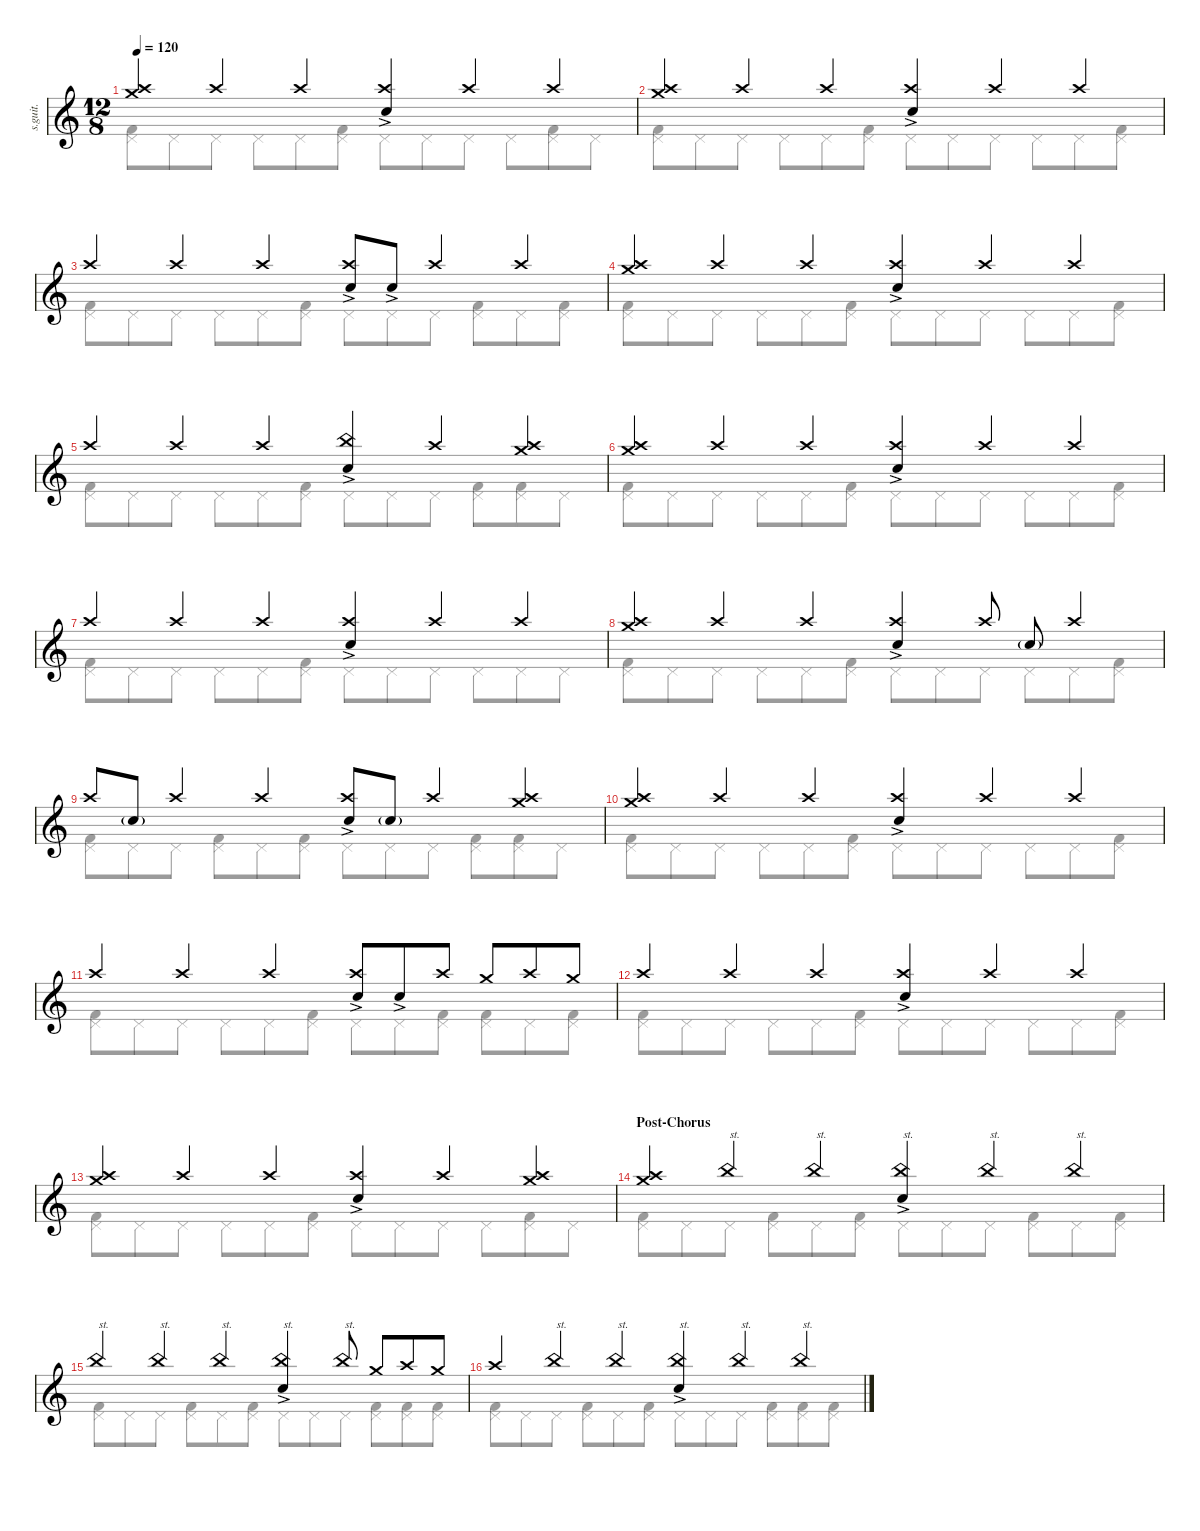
\defaultSystemsLayout 4
\hideDynamics
\bracketExtendMode nobrackets
\track ("Percussion" "s.guit.") {instrument percussion}
\staff {score}
\articulation defaults
\voice
\ts (12 8)
\tempo 120
\clef g2
\ks c
("Crash medium (hit)" "Crash high (hit)").4{lyrics (0 "") lyrics (1 "") lyrics (2 "") lyrics (3 "") lyrics (4 "") dy f} "Crash high (hit)".4{lyrics (0 "") lyrics (1 "") lyrics (2 "") lyrics (3 "") lyrics (4 "")} "Crash high (hit)".4{lyrics (0 "") lyrics (1 "") lyrics (2 "") lyrics (3 "") lyrics (4 "")} ("Crash high (hit)" "Snare (hit) 2"{ac}).4{lyrics (0 "") lyrics (1 "") lyrics (2 "") lyrics (3 "") lyrics (4 "")} "Crash high (hit)".4{lyrics (0 "") lyrics (1 "") lyrics (2 "") lyrics (3 "") lyrics (4 "")} "Crash high (hit)".4{lyrics (0 "") lyrics (1 "") lyrics (2 "") lyrics (3 "") lyrics (4 "")} |
("Crash medium (hit)" "Crash high (hit)").4{lyrics (0 "") lyrics (1 "") lyrics (2 "") lyrics (3 "") lyrics (4 "")} "Crash high (hit)".4{lyrics (0 "") lyrics (1 "") lyrics (2 "") lyrics (3 "") lyrics (4 "")} "Crash high (hit)".4{lyrics (0 "") lyrics (1 "") lyrics (2 "") lyrics (3 "") lyrics (4 "")} ("Crash high (hit)" "Snare (hit) 2"{ac}).4{lyrics (0 "") lyrics (1 "") lyrics (2 "") lyrics (3 "") lyrics (4 "")} "Crash high (hit)".4{lyrics (0 "") lyrics (1 "") lyrics (2 "") lyrics (3 "") lyrics (4 "")} "Crash high (hit)".4{lyrics (0 "") lyrics (1 "") lyrics (2 "") lyrics (3 "") lyrics (4 "")} |
"Crash high (hit)".4{lyrics (0 "") lyrics (1 "") lyrics (2 "") lyrics (3 "") lyrics (4 "")} "Crash high (hit)".4{lyrics (0 "") lyrics (1 "") lyrics (2 "") lyrics (3 "") lyrics (4 "")} "Crash high (hit)".4{lyrics (0 "") lyrics (1 "") lyrics (2 "") lyrics (3 "") lyrics (4 "")} ("Crash high (hit)" "Snare (hit) 2"{ac}).8{lyrics (0 "") lyrics (1 "") lyrics (2 "") lyrics (3 "") lyrics (4 "")} "Snare (hit) 2"{ac}.8{lyrics (0 "") lyrics (1 "") lyrics (2 "") lyrics (3 "") lyrics (4 "") dy mf} "Crash high (hit)".4{lyrics (0 "") lyrics (1 "") lyrics (2 "") lyrics (3 "") lyrics (4 "") dy f} "Crash high (hit)".4{lyrics (0 "") lyrics (1 "") lyrics (2 "") lyrics (3 "") lyrics (4 "")} |
("Crash medium (hit)" "Crash high (hit)").4{lyrics (0 "") lyrics (1 "") lyrics (2 "") lyrics (3 "") lyrics (4 "")} "Crash high (hit)".4{lyrics (0 "") lyrics (1 "") lyrics (2 "") lyrics (3 "") lyrics (4 "")} "Crash high (hit)".4{lyrics (0 "") lyrics (1 "") lyrics (2 "") lyrics (3 "") lyrics (4 "")} ("Crash high (hit)" "Snare (hit) 2"{ac}).4{lyrics (0 "") lyrics (1 "") lyrics (2 "") lyrics (3 "") lyrics (4 "")} "Crash high (hit)".4{lyrics (0 "") lyrics (1 "") lyrics (2 "") lyrics (3 "") lyrics (4 "")} "Crash high (hit)".4{lyrics (0 "") lyrics (1 "") lyrics (2 "") lyrics (3 "") lyrics (4 "")} |
"Crash high (hit)".4{lyrics (0 "") lyrics (1 "") lyrics (2 "") lyrics (3 "") lyrics (4 "")} "Crash high (hit)".4{lyrics (0 "") lyrics (1 "") lyrics (2 "") lyrics (3 "") lyrics (4 "")} "Crash high (hit)".4{lyrics (0 "") lyrics (1 "") lyrics (2 "") lyrics (3 "") lyrics (4 "")} ("Snare (hit) 2"{ac} "China (hit)").4{lyrics (0 "") lyrics (1 "") lyrics (2 "") lyrics (3 "") lyrics (4 "")} "Crash high (hit)".4{lyrics (0 "") lyrics (1 "") lyrics (2 "") lyrics (3 "") lyrics (4 "")} ("Crash high (hit)" "Crash medium (hit)").4{lyrics (0 "") lyrics (1 "") lyrics (2 "") lyrics (3 "") lyrics (4 "")} |
("Crash medium (hit)" "Crash high (hit)").4{lyrics (0 "") lyrics (1 "") lyrics (2 "") lyrics (3 "") lyrics (4 "")} "Crash high (hit)".4{lyrics (0 "") lyrics (1 "") lyrics (2 "") lyrics (3 "") lyrics (4 "")} "Crash high (hit)".4{lyrics (0 "") lyrics (1 "") lyrics (2 "") lyrics (3 "") lyrics (4 "")} ("Crash high (hit)" "Snare (hit) 2"{ac}).4{lyrics (0 "") lyrics (1 "") lyrics (2 "") lyrics (3 "") lyrics (4 "")} "Crash high (hit)".4{lyrics (0 "") lyrics (1 "") lyrics (2 "") lyrics (3 "") lyrics (4 "")} "Crash high (hit)".4{lyrics (0 "") lyrics (1 "") lyrics (2 "") lyrics (3 "") lyrics (4 "")} |
"Crash high (hit)".4{lyrics (0 "") lyrics (1 "") lyrics (2 "") lyrics (3 "") lyrics (4 "")} "Crash high (hit)".4{lyrics (0 "") lyrics (1 "") lyrics (2 "") lyrics (3 "") lyrics (4 "")} "Crash high (hit)".4{lyrics (0 "") lyrics (1 "") lyrics (2 "") lyrics (3 "") lyrics (4 "")} ("Crash high (hit)" "Snare (hit) 2"{ac}).4{lyrics (0 "") lyrics (1 "") lyrics (2 "") lyrics (3 "") lyrics (4 "")} "Crash high (hit)".4{lyrics (0 "") lyrics (1 "") lyrics (2 "") lyrics (3 "") lyrics (4 "")} "Crash high (hit)".4{lyrics (0 "") lyrics (1 "") lyrics (2 "") lyrics (3 "") lyrics (4 "")} |
("Crash medium (hit)" "Crash high (hit)").4{lyrics (0 "") lyrics (1 "") lyrics (2 "") lyrics (3 "") lyrics (4 "")} "Crash high (hit)".4{lyrics (0 "") lyrics (1 "") lyrics (2 "") lyrics (3 "") lyrics (4 "")} "Crash high (hit)".4{lyrics (0 "") lyrics (1 "") lyrics (2 "") lyrics (3 "") lyrics (4 "")} ("Crash high (hit)" "Snare (hit) 2"{ac}).4{lyrics (0 "") lyrics (1 "") lyrics (2 "") lyrics (3 "") lyrics (4 "")} "Crash high (hit)".8{lyrics (0 "") lyrics (1 "") lyrics (2 "") lyrics (3 "") lyrics (4 "")} "Snare (hit) 2"{g}.8{lyrics (0 "") lyrics (1 "") lyrics (2 "") lyrics (3 "") lyrics (4 "") dy ff} "Crash high (hit)".4{lyrics (0 "") lyrics (1 "") lyrics (2 "") lyrics (3 "") lyrics (4 "") dy f} |
"Crash high (hit)".8{lyrics (0 "") lyrics (1 "") lyrics (2 "") lyrics (3 "") lyrics (4 "")} "Snare (hit) 2"{g}.8{lyrics (0 "") lyrics (1 "") lyrics (2 "") lyrics (3 "") lyrics (4 "") dy ff} "Crash high (hit)".4{lyrics (0 "") lyrics (1 "") lyrics (2 "") lyrics (3 "") lyrics (4 "") dy f} "Crash high (hit)".4{lyrics (0 "") lyrics (1 "") lyrics (2 "") lyrics (3 "") lyrics (4 "")} ("Crash high (hit)" "Snare (hit) 2"{ac}).8{lyrics (0 "") lyrics (1 "") lyrics (2 "") lyrics (3 "") lyrics (4 "")} "Snare (hit) 2"{g}.8{lyrics (0 "") lyrics (1 "") lyrics (2 "") lyrics (3 "") lyrics (4 "") dy ff} "Crash high (hit)".4{lyrics (0 "") lyrics (1 "") lyrics (2 "") lyrics (3 "") lyrics (4 "") dy f} ("Crash high (hit)" "Crash medium (hit)").4{lyrics (0 "") lyrics (1 "") lyrics (2 "") lyrics (3 "") lyrics (4 "")} |
("Crash medium (hit)" "Crash high (hit)").4{lyrics (0 "") lyrics (1 "") lyrics (2 "") lyrics (3 "") lyrics (4 "")} "Crash high (hit)".4{lyrics (0 "") lyrics (1 "") lyrics (2 "") lyrics (3 "") lyrics (4 "")} "Crash high (hit)".4{lyrics (0 "") lyrics (1 "") lyrics (2 "") lyrics (3 "") lyrics (4 "")} ("Crash high (hit)" "Snare (hit) 2"{ac}).4{lyrics (0 "") lyrics (1 "") lyrics (2 "") lyrics (3 "") lyrics (4 "")} "Crash high (hit)".4{lyrics (0 "") lyrics (1 "") lyrics (2 "") lyrics (3 "") lyrics (4 "")} "Crash high (hit)".4{lyrics (0 "") lyrics (1 "") lyrics (2 "") lyrics (3 "") lyrics (4 "")} |
"Crash high (hit)".4{lyrics (0 "") lyrics (1 "") lyrics (2 "") lyrics (3 "") lyrics (4 "")} "Crash high (hit)".4{lyrics (0 "") lyrics (1 "") lyrics (2 "") lyrics (3 "") lyrics (4 "")} "Crash high (hit)".4{lyrics (0 "") lyrics (1 "") lyrics (2 "") lyrics (3 "") lyrics (4 "")} ("Crash high (hit)" "Snare (hit) 2"{ac}).8{lyrics (0 "") lyrics (1 "") lyrics (2 "") lyrics (3 "") lyrics (4 "")} "Snare (hit) 2"{ac}.8{lyrics (0 "") lyrics (1 "") lyrics (2 "") lyrics (3 "") lyrics (4 "") dy mf} "Crash high (hit)".8{lyrics (0 "") lyrics (1 "") lyrics (2 "") lyrics (3 "") lyrics (4 "") dy f} "Crash medium (hit)".8{lyrics (0 "") lyrics (1 "") lyrics (2 "") lyrics (3 "") lyrics (4 "")} "Crash high (hit)".8{lyrics (0 "") lyrics (1 "") lyrics (2 "") lyrics (3 "") lyrics (4 "")} "Crash medium (hit)".8{lyrics (0 "") lyrics (1 "") lyrics (2 "") lyrics (3 "") lyrics (4 "")} |
"Crash high (hit)".4{lyrics (0 "") lyrics (1 "") lyrics (2 "") lyrics (3 "") lyrics (4 "")} "Crash high (hit)".4{lyrics (0 "") lyrics (1 "") lyrics (2 "") lyrics (3 "") lyrics (4 "")} "Crash high (hit)".4{lyrics (0 "") lyrics (1 "") lyrics (2 "") lyrics (3 "") lyrics (4 "")} ("Crash high (hit)" "Snare (hit) 2"{ac}).4{lyrics (0 "") lyrics (1 "") lyrics (2 "") lyrics (3 "") lyrics (4 "")} "Crash high (hit)".4{lyrics (0 "") lyrics (1 "") lyrics (2 "") lyrics (3 "") lyrics (4 "")} "Crash high (hit)".4{lyrics (0 "") lyrics (1 "") lyrics (2 "") lyrics (3 "") lyrics (4 "")} |
("Crash medium (hit)" "Crash high (hit)").4{lyrics (0 "") lyrics (1 "") lyrics (2 "") lyrics (3 "") lyrics (4 "")} "Crash high (hit)".4{lyrics (0 "") lyrics (1 "") lyrics (2 "") lyrics (3 "") lyrics (4 "")} "Crash high (hit)".4{lyrics (0 "") lyrics (1 "") lyrics (2 "") lyrics (3 "") lyrics (4 "")} ("Crash high (hit)" "Snare (hit) 2"{ac}).4{lyrics (0 "") lyrics (1 "") lyrics (2 "") lyrics (3 "") lyrics (4 "")} "Crash high (hit)".4{lyrics (0 "") lyrics (1 "") lyrics (2 "") lyrics (3 "") lyrics (4 "")} ("Crash high (hit)" "Crash medium (hit)").4{lyrics (0 "") lyrics (1 "") lyrics (2 "") lyrics (3 "") lyrics (4 "")} |
\section ("" "Post-Chorus")
("Crash high (hit)" "Crash medium (hit)").4{lyrics (0 "") lyrics (1 "") lyrics (2 "") lyrics (3 "") lyrics (4 "")} "China (hit)".4{txt "st." lyrics (0 "") lyrics (1 "") lyrics (2 "") lyrics (3 "") lyrics (4 "")} "China (hit)".4{txt "st." lyrics (0 "") lyrics (1 "") lyrics (2 "") lyrics (3 "") lyrics (4 "")} ("Snare (hit) 2"{ac} "China (hit)").4{txt "st." lyrics (0 "") lyrics (1 "") lyrics (2 "") lyrics (3 "") lyrics (4 "")} "China (hit)".4{txt "st." lyrics (0 "") lyrics (1 "") lyrics (2 "") lyrics (3 "") lyrics (4 "")} "China (hit)".4{txt "st." lyrics (0 "") lyrics (1 "") lyrics (2 "") lyrics (3 "") lyrics (4 "")} |
"China (hit)".4{txt "st." lyrics (0 "") lyrics (1 "") lyrics (2 "") lyrics (3 "") lyrics (4 "")} "China (hit)".4{txt "st." lyrics (0 "") lyrics (1 "") lyrics (2 "") lyrics (3 "") lyrics (4 "")} "China (hit)".4{txt "st." lyrics (0 "") lyrics (1 "") lyrics (2 "") lyrics (3 "") lyrics (4 "")} ("Snare (hit) 2"{ac} "China (hit)").4{txt "st." lyrics (0 "") lyrics (1 "") lyrics (2 "") lyrics (3 "") lyrics (4 "")} "China (hit)".8{txt "st." lyrics (0 "") lyrics (1 "") lyrics (2 "") lyrics (3 "") lyrics (4 "")} "Crash medium (hit)".8{lyrics (0 "") lyrics (1 "") lyrics (2 "") lyrics (3 "") lyrics (4 "")} "Crash high (hit)".8{lyrics (0 "") lyrics (1 "") lyrics (2 "") lyrics (3 "") lyrics (4 "")} "Crash medium (hit)".8{lyrics (0 "") lyrics (1 "") lyrics (2 "") lyrics (3 "") lyrics (4 "")} |
"Crash high (hit)".4{lyrics (0 "") lyrics (1 "") lyrics (2 "") lyrics (3 "") lyrics (4 "")} "China (hit)".4{txt "st." lyrics (0 "") lyrics (1 "") lyrics (2 "") lyrics (3 "") lyrics (4 "")} "China (hit)".4{txt "st." lyrics (0 "") lyrics (1 "") lyrics (2 "") lyrics (3 "") lyrics (4 "")} ("Snare (hit) 2"{ac} "China (hit)").4{txt "st." lyrics (0 "") lyrics (1 "") lyrics (2 "") lyrics (3 "") lyrics (4 "")} "China (hit)".4{txt "st." lyrics (0 "") lyrics (1 "") lyrics (2 "") lyrics (3 "") lyrics (4 "")} "China (hit)".4{txt "st." lyrics (0 "") lyrics (1 "") lyrics (2 "") lyrics (3 "") lyrics (4 "")}
\voice
\clef g2
\ottava regular
\simile none
\ks c
("Kick (hit) 2" "Pedal Hi-Hat (hit)").8{lyrics (0 "") lyrics (1 "") lyrics (2 "") lyrics (3 "") lyrics (4 "") dy f} "Pedal Hi-Hat (hit)".8{lyrics (0 "") lyrics (1 "") lyrics (2 "") lyrics (3 "") lyrics (4 "")} "Pedal Hi-Hat (hit)".8{lyrics (0 "") lyrics (1 "") lyrics (2 "") lyrics (3 "") lyrics (4 "")} "Pedal Hi-Hat (hit)".8{lyrics (0 "") lyrics (1 "") lyrics (2 "") lyrics (3 "") lyrics (4 "")} "Pedal Hi-Hat (hit)".8{lyrics (0 "") lyrics (1 "") lyrics (2 "") lyrics (3 "") lyrics (4 "")} ("Pedal Hi-Hat (hit)" "Kick (hit) 2").8{lyrics (0 "") lyrics (1 "") lyrics (2 "") lyrics (3 "") lyrics (4 "")} "Pedal Hi-Hat (hit)".8{lyrics (0 "") lyrics (1 "") lyrics (2 "") lyrics (3 "") lyrics (4 "")} "Pedal Hi-Hat (hit)".8{lyrics (0 "") lyrics (1 "") lyrics (2 "") lyrics (3 "") lyrics (4 "")} "Pedal Hi-Hat (hit)".8{lyrics (0 "") lyrics (1 "") lyrics (2 "") lyrics (3 "") lyrics (4 "")} "Pedal Hi-Hat (hit)".8{lyrics (0 "") lyrics (1 "") lyrics (2 "") lyrics (3 "") lyrics (4 "")} ("Pedal Hi-Hat (hit)" "Kick (hit) 2").8{lyrics (0 "") lyrics (1 "") lyrics (2 "") lyrics (3 "") lyrics (4 "")} "Pedal Hi-Hat (hit)".8{lyrics (0 "") lyrics (1 "") lyrics (2 "") lyrics (3 "") lyrics (4 "")} |
("Kick (hit) 2" "Pedal Hi-Hat (hit)").8{lyrics (0 "") lyrics (1 "") lyrics (2 "") lyrics (3 "") lyrics (4 "")} "Pedal Hi-Hat (hit)".8{lyrics (0 "") lyrics (1 "") lyrics (2 "") lyrics (3 "") lyrics (4 "")} "Pedal Hi-Hat (hit)".8{lyrics (0 "") lyrics (1 "") lyrics (2 "") lyrics (3 "") lyrics (4 "")} "Pedal Hi-Hat (hit)".8{lyrics (0 "") lyrics (1 "") lyrics (2 "") lyrics (3 "") lyrics (4 "")} "Pedal Hi-Hat (hit)".8{lyrics (0 "") lyrics (1 "") lyrics (2 "") lyrics (3 "") lyrics (4 "")} ("Pedal Hi-Hat (hit)" "Kick (hit) 2").8{lyrics (0 "") lyrics (1 "") lyrics (2 "") lyrics (3 "") lyrics (4 "")} "Pedal Hi-Hat (hit)".8{lyrics (0 "") lyrics (1 "") lyrics (2 "") lyrics (3 "") lyrics (4 "")} "Pedal Hi-Hat (hit)".8{lyrics (0 "") lyrics (1 "") lyrics (2 "") lyrics (3 "") lyrics (4 "")} "Pedal Hi-Hat (hit)".8{lyrics (0 "") lyrics (1 "") lyrics (2 "") lyrics (3 "") lyrics (4 "")} "Pedal Hi-Hat (hit)".8{lyrics (0 "") lyrics (1 "") lyrics (2 "") lyrics (3 "") lyrics (4 "")} "Pedal Hi-Hat (hit)".8{lyrics (0 "") lyrics (1 "") lyrics (2 "") lyrics (3 "") lyrics (4 "")} ("Pedal Hi-Hat (hit)" "Kick (hit) 2").8{lyrics (0 "") lyrics (1 "") lyrics (2 "") lyrics (3 "") lyrics (4 "")} |
("Kick (hit) 2" "Pedal Hi-Hat (hit)").8{lyrics (0 "") lyrics (1 "") lyrics (2 "") lyrics (3 "") lyrics (4 "")} "Pedal Hi-Hat (hit)".8{lyrics (0 "") lyrics (1 "") lyrics (2 "") lyrics (3 "") lyrics (4 "")} "Pedal Hi-Hat (hit)".8{lyrics (0 "") lyrics (1 "") lyrics (2 "") lyrics (3 "") lyrics (4 "")} "Pedal Hi-Hat (hit)".8{lyrics (0 "") lyrics (1 "") lyrics (2 "") lyrics (3 "") lyrics (4 "")} "Pedal Hi-Hat (hit)".8{lyrics (0 "") lyrics (1 "") lyrics (2 "") lyrics (3 "") lyrics (4 "")} ("Pedal Hi-Hat (hit)" "Kick (hit) 2").8{lyrics (0 "") lyrics (1 "") lyrics (2 "") lyrics (3 "") lyrics (4 "")} "Pedal Hi-Hat (hit)".8{lyrics (0 "") lyrics (1 "") lyrics (2 "") lyrics (3 "") lyrics (4 "")} "Pedal Hi-Hat (hit)".8{lyrics (0 "") lyrics (1 "") lyrics (2 "") lyrics (3 "") lyrics (4 "")} "Pedal Hi-Hat (hit)".8{lyrics (0 "") lyrics (1 "") lyrics (2 "") lyrics (3 "") lyrics (4 "")} ("Pedal Hi-Hat (hit)" "Kick (hit) 2").8{lyrics (0 "") lyrics (1 "") lyrics (2 "") lyrics (3 "") lyrics (4 "")} "Pedal Hi-Hat (hit)".8{lyrics (0 "") lyrics (1 "") lyrics (2 "") lyrics (3 "") lyrics (4 "")} ("Pedal Hi-Hat (hit)" "Kick (hit) 2").8{lyrics (0 "") lyrics (1 "") lyrics (2 "") lyrics (3 "") lyrics (4 "")} |
("Kick (hit) 2" "Pedal Hi-Hat (hit)").8{lyrics (0 "") lyrics (1 "") lyrics (2 "") lyrics (3 "") lyrics (4 "")} "Pedal Hi-Hat (hit)".8{lyrics (0 "") lyrics (1 "") lyrics (2 "") lyrics (3 "") lyrics (4 "")} "Pedal Hi-Hat (hit)".8{lyrics (0 "") lyrics (1 "") lyrics (2 "") lyrics (3 "") lyrics (4 "")} "Pedal Hi-Hat (hit)".8{lyrics (0 "") lyrics (1 "") lyrics (2 "") lyrics (3 "") lyrics (4 "")} "Pedal Hi-Hat (hit)".8{lyrics (0 "") lyrics (1 "") lyrics (2 "") lyrics (3 "") lyrics (4 "")} ("Pedal Hi-Hat (hit)" "Kick (hit) 2").8{lyrics (0 "") lyrics (1 "") lyrics (2 "") lyrics (3 "") lyrics (4 "")} "Pedal Hi-Hat (hit)".8{lyrics (0 "") lyrics (1 "") lyrics (2 "") lyrics (3 "") lyrics (4 "")} "Pedal Hi-Hat (hit)".8{lyrics (0 "") lyrics (1 "") lyrics (2 "") lyrics (3 "") lyrics (4 "")} "Pedal Hi-Hat (hit)".8{lyrics (0 "") lyrics (1 "") lyrics (2 "") lyrics (3 "") lyrics (4 "")} "Pedal Hi-Hat (hit)".8{lyrics (0 "") lyrics (1 "") lyrics (2 "") lyrics (3 "") lyrics (4 "")} "Pedal Hi-Hat (hit)".8{lyrics (0 "") lyrics (1 "") lyrics (2 "") lyrics (3 "") lyrics (4 "")} ("Pedal Hi-Hat (hit)" "Kick (hit) 2").8{lyrics (0 "") lyrics (1 "") lyrics (2 "") lyrics (3 "") lyrics (4 "")} |
("Kick (hit) 2" "Pedal Hi-Hat (hit)").8{lyrics (0 "") lyrics (1 "") lyrics (2 "") lyrics (3 "") lyrics (4 "")} "Pedal Hi-Hat (hit)".8{lyrics (0 "") lyrics (1 "") lyrics (2 "") lyrics (3 "") lyrics (4 "")} "Pedal Hi-Hat (hit)".8{lyrics (0 "") lyrics (1 "") lyrics (2 "") lyrics (3 "") lyrics (4 "")} "Pedal Hi-Hat (hit)".8{lyrics (0 "") lyrics (1 "") lyrics (2 "") lyrics (3 "") lyrics (4 "")} "Pedal Hi-Hat (hit)".8{lyrics (0 "") lyrics (1 "") lyrics (2 "") lyrics (3 "") lyrics (4 "")} ("Pedal Hi-Hat (hit)" "Kick (hit) 2").8{lyrics (0 "") lyrics (1 "") lyrics (2 "") lyrics (3 "") lyrics (4 "")} "Pedal Hi-Hat (hit)".8{lyrics (0 "") lyrics (1 "") lyrics (2 "") lyrics (3 "") lyrics (4 "")} "Pedal Hi-Hat (hit)".8{lyrics (0 "") lyrics (1 "") lyrics (2 "") lyrics (3 "") lyrics (4 "")} "Pedal Hi-Hat (hit)".8{lyrics (0 "") lyrics (1 "") lyrics (2 "") lyrics (3 "") lyrics (4 "")} ("Pedal Hi-Hat (hit)" "Kick (hit) 2").8{lyrics (0 "") lyrics (1 "") lyrics (2 "") lyrics (3 "") lyrics (4 "")} ("Pedal Hi-Hat (hit)" "Kick (hit) 2").8{lyrics (0 "") lyrics (1 "") lyrics (2 "") lyrics (3 "") lyrics (4 "")} "Pedal Hi-Hat (hit)".8{lyrics (0 "") lyrics (1 "") lyrics (2 "") lyrics (3 "") lyrics (4 "")} |
("Kick (hit) 2" "Pedal Hi-Hat (hit)").8{lyrics (0 "") lyrics (1 "") lyrics (2 "") lyrics (3 "") lyrics (4 "")} "Pedal Hi-Hat (hit)".8{lyrics (0 "") lyrics (1 "") lyrics (2 "") lyrics (3 "") lyrics (4 "")} "Pedal Hi-Hat (hit)".8{lyrics (0 "") lyrics (1 "") lyrics (2 "") lyrics (3 "") lyrics (4 "")} "Pedal Hi-Hat (hit)".8{lyrics (0 "") lyrics (1 "") lyrics (2 "") lyrics (3 "") lyrics (4 "")} "Pedal Hi-Hat (hit)".8{lyrics (0 "") lyrics (1 "") lyrics (2 "") lyrics (3 "") lyrics (4 "")} ("Pedal Hi-Hat (hit)" "Kick (hit) 2").8{lyrics (0 "") lyrics (1 "") lyrics (2 "") lyrics (3 "") lyrics (4 "")} "Pedal Hi-Hat (hit)".8{lyrics (0 "") lyrics (1 "") lyrics (2 "") lyrics (3 "") lyrics (4 "")} "Pedal Hi-Hat (hit)".8{lyrics (0 "") lyrics (1 "") lyrics (2 "") lyrics (3 "") lyrics (4 "")} "Pedal Hi-Hat (hit)".8{lyrics (0 "") lyrics (1 "") lyrics (2 "") lyrics (3 "") lyrics (4 "")} "Pedal Hi-Hat (hit)".8{lyrics (0 "") lyrics (1 "") lyrics (2 "") lyrics (3 "") lyrics (4 "")} "Pedal Hi-Hat (hit)".8{lyrics (0 "") lyrics (1 "") lyrics (2 "") lyrics (3 "") lyrics (4 "")} ("Pedal Hi-Hat (hit)" "Kick (hit) 2").8{lyrics (0 "") lyrics (1 "") lyrics (2 "") lyrics (3 "") lyrics (4 "")} |
("Kick (hit) 2" "Pedal Hi-Hat (hit)").8{lyrics (0 "") lyrics (1 "") lyrics (2 "") lyrics (3 "") lyrics (4 "")} "Pedal Hi-Hat (hit)".8{lyrics (0 "") lyrics (1 "") lyrics (2 "") lyrics (3 "") lyrics (4 "")} "Pedal Hi-Hat (hit)".8{lyrics (0 "") lyrics (1 "") lyrics (2 "") lyrics (3 "") lyrics (4 "")} "Pedal Hi-Hat (hit)".8{lyrics (0 "") lyrics (1 "") lyrics (2 "") lyrics (3 "") lyrics (4 "")} "Pedal Hi-Hat (hit)".8{lyrics (0 "") lyrics (1 "") lyrics (2 "") lyrics (3 "") lyrics (4 "")} ("Pedal Hi-Hat (hit)" "Kick (hit) 2").8{lyrics (0 "") lyrics (1 "") lyrics (2 "") lyrics (3 "") lyrics (4 "")} "Pedal Hi-Hat (hit)".8{lyrics (0 "") lyrics (1 "") lyrics (2 "") lyrics (3 "") lyrics (4 "")} "Pedal Hi-Hat (hit)".8{lyrics (0 "") lyrics (1 "") lyrics (2 "") lyrics (3 "") lyrics (4 "")} "Pedal Hi-Hat (hit)".8{lyrics (0 "") lyrics (1 "") lyrics (2 "") lyrics (3 "") lyrics (4 "")} "Pedal Hi-Hat (hit)".8{lyrics (0 "") lyrics (1 "") lyrics (2 "") lyrics (3 "") lyrics (4 "")} "Pedal Hi-Hat (hit)".8{lyrics (0 "") lyrics (1 "") lyrics (2 "") lyrics (3 "") lyrics (4 "")} "Pedal Hi-Hat (hit)".8{lyrics (0 "") lyrics (1 "") lyrics (2 "") lyrics (3 "") lyrics (4 "")} |
("Kick (hit) 2" "Pedal Hi-Hat (hit)").8{lyrics (0 "") lyrics (1 "") lyrics (2 "") lyrics (3 "") lyrics (4 "")} "Pedal Hi-Hat (hit)".8{lyrics (0 "") lyrics (1 "") lyrics (2 "") lyrics (3 "") lyrics (4 "")} "Pedal Hi-Hat (hit)".8{lyrics (0 "") lyrics (1 "") lyrics (2 "") lyrics (3 "") lyrics (4 "")} "Pedal Hi-Hat (hit)".8{lyrics (0 "") lyrics (1 "") lyrics (2 "") lyrics (3 "") lyrics (4 "")} "Pedal Hi-Hat (hit)".8{lyrics (0 "") lyrics (1 "") lyrics (2 "") lyrics (3 "") lyrics (4 "")} ("Pedal Hi-Hat (hit)" "Kick (hit) 2").8{lyrics (0 "") lyrics (1 "") lyrics (2 "") lyrics (3 "") lyrics (4 "")} "Pedal Hi-Hat (hit)".8{lyrics (0 "") lyrics (1 "") lyrics (2 "") lyrics (3 "") lyrics (4 "")} "Pedal Hi-Hat (hit)".8{lyrics (0 "") lyrics (1 "") lyrics (2 "") lyrics (3 "") lyrics (4 "")} "Pedal Hi-Hat (hit)".8{lyrics (0 "") lyrics (1 "") lyrics (2 "") lyrics (3 "") lyrics (4 "")} "Pedal Hi-Hat (hit)".8{lyrics (0 "") lyrics (1 "") lyrics (2 "") lyrics (3 "") lyrics (4 "")} "Pedal Hi-Hat (hit)".8{lyrics (0 "") lyrics (1 "") lyrics (2 "") lyrics (3 "") lyrics (4 "")} ("Pedal Hi-Hat (hit)" "Kick (hit) 2").8{lyrics (0 "") lyrics (1 "") lyrics (2 "") lyrics (3 "") lyrics (4 "")} |
("Kick (hit) 2" "Pedal Hi-Hat (hit)").8{lyrics (0 "") lyrics (1 "") lyrics (2 "") lyrics (3 "") lyrics (4 "")} "Pedal Hi-Hat (hit)".8{lyrics (0 "") lyrics (1 "") lyrics (2 "") lyrics (3 "") lyrics (4 "")} "Pedal Hi-Hat (hit)".8{lyrics (0 "") lyrics (1 "") lyrics (2 "") lyrics (3 "") lyrics (4 "")} ("Pedal Hi-Hat (hit)" "Kick (hit) 2").8{lyrics (0 "") lyrics (1 "") lyrics (2 "") lyrics (3 "") lyrics (4 "")} "Pedal Hi-Hat (hit)".8{lyrics (0 "") lyrics (1 "") lyrics (2 "") lyrics (3 "") lyrics (4 "")} ("Pedal Hi-Hat (hit)" "Kick (hit) 2").8{lyrics (0 "") lyrics (1 "") lyrics (2 "") lyrics (3 "") lyrics (4 "")} "Pedal Hi-Hat (hit)".8{lyrics (0 "") lyrics (1 "") lyrics (2 "") lyrics (3 "") lyrics (4 "")} "Pedal Hi-Hat (hit)".8{lyrics (0 "") lyrics (1 "") lyrics (2 "") lyrics (3 "") lyrics (4 "")} "Pedal Hi-Hat (hit)".8{lyrics (0 "") lyrics (1 "") lyrics (2 "") lyrics (3 "") lyrics (4 "")} ("Pedal Hi-Hat (hit)" "Kick (hit) 2").8{lyrics (0 "") lyrics (1 "") lyrics (2 "") lyrics (3 "") lyrics (4 "")} ("Pedal Hi-Hat (hit)" "Kick (hit) 2").8{lyrics (0 "") lyrics (1 "") lyrics (2 "") lyrics (3 "") lyrics (4 "")} "Pedal Hi-Hat (hit)".8{lyrics (0 "") lyrics (1 "") lyrics (2 "") lyrics (3 "") lyrics (4 "")} |
("Kick (hit) 2" "Pedal Hi-Hat (hit)").8{lyrics (0 "") lyrics (1 "") lyrics (2 "") lyrics (3 "") lyrics (4 "")} "Pedal Hi-Hat (hit)".8{lyrics (0 "") lyrics (1 "") lyrics (2 "") lyrics (3 "") lyrics (4 "")} "Pedal Hi-Hat (hit)".8{lyrics (0 "") lyrics (1 "") lyrics (2 "") lyrics (3 "") lyrics (4 "")} "Pedal Hi-Hat (hit)".8{lyrics (0 "") lyrics (1 "") lyrics (2 "") lyrics (3 "") lyrics (4 "")} "Pedal Hi-Hat (hit)".8{lyrics (0 "") lyrics (1 "") lyrics (2 "") lyrics (3 "") lyrics (4 "")} ("Pedal Hi-Hat (hit)" "Kick (hit) 2").8{lyrics (0 "") lyrics (1 "") lyrics (2 "") lyrics (3 "") lyrics (4 "")} "Pedal Hi-Hat (hit)".8{lyrics (0 "") lyrics (1 "") lyrics (2 "") lyrics (3 "") lyrics (4 "")} "Pedal Hi-Hat (hit)".8{lyrics (0 "") lyrics (1 "") lyrics (2 "") lyrics (3 "") lyrics (4 "")} "Pedal Hi-Hat (hit)".8{lyrics (0 "") lyrics (1 "") lyrics (2 "") lyrics (3 "") lyrics (4 "")} "Pedal Hi-Hat (hit)".8{lyrics (0 "") lyrics (1 "") lyrics (2 "") lyrics (3 "") lyrics (4 "")} "Pedal Hi-Hat (hit)".8{lyrics (0 "") lyrics (1 "") lyrics (2 "") lyrics (3 "") lyrics (4 "")} ("Pedal Hi-Hat (hit)" "Kick (hit) 2").8{lyrics (0 "") lyrics (1 "") lyrics (2 "") lyrics (3 "") lyrics (4 "")} |
("Kick (hit) 2" "Pedal Hi-Hat (hit)").8{lyrics (0 "") lyrics (1 "") lyrics (2 "") lyrics (3 "") lyrics (4 "")} "Pedal Hi-Hat (hit)".8{lyrics (0 "") lyrics (1 "") lyrics (2 "") lyrics (3 "") lyrics (4 "")} "Pedal Hi-Hat (hit)".8{lyrics (0 "") lyrics (1 "") lyrics (2 "") lyrics (3 "") lyrics (4 "")} "Pedal Hi-Hat (hit)".8{lyrics (0 "") lyrics (1 "") lyrics (2 "") lyrics (3 "") lyrics (4 "")} "Pedal Hi-Hat (hit)".8{lyrics (0 "") lyrics (1 "") lyrics (2 "") lyrics (3 "") lyrics (4 "")} ("Pedal Hi-Hat (hit)" "Kick (hit) 2").8{lyrics (0 "") lyrics (1 "") lyrics (2 "") lyrics (3 "") lyrics (4 "")} "Pedal Hi-Hat (hit)".8{lyrics (0 "") lyrics (1 "") lyrics (2 "") lyrics (3 "") lyrics (4 "")} "Pedal Hi-Hat (hit)".8{lyrics (0 "") lyrics (1 "") lyrics (2 "") lyrics (3 "") lyrics (4 "")} ("Pedal Hi-Hat (hit)" "Kick (hit) 2").8{lyrics (0 "") lyrics (1 "") lyrics (2 "") lyrics (3 "") lyrics (4 "")} ("Pedal Hi-Hat (hit)" "Kick (hit) 2").8{lyrics (0 "") lyrics (1 "") lyrics (2 "") lyrics (3 "") lyrics (4 "")} "Pedal Hi-Hat (hit)".8{lyrics (0 "") lyrics (1 "") lyrics (2 "") lyrics (3 "") lyrics (4 "")} ("Pedal Hi-Hat (hit)" "Kick (hit) 2").8{lyrics (0 "") lyrics (1 "") lyrics (2 "") lyrics (3 "") lyrics (4 "")} |
("Kick (hit) 2" "Pedal Hi-Hat (hit)").8{lyrics (0 "") lyrics (1 "") lyrics (2 "") lyrics (3 "") lyrics (4 "")} "Pedal Hi-Hat (hit)".8{lyrics (0 "") lyrics (1 "") lyrics (2 "") lyrics (3 "") lyrics (4 "")} "Pedal Hi-Hat (hit)".8{lyrics (0 "") lyrics (1 "") lyrics (2 "") lyrics (3 "") lyrics (4 "")} "Pedal Hi-Hat (hit)".8{lyrics (0 "") lyrics (1 "") lyrics (2 "") lyrics (3 "") lyrics (4 "")} "Pedal Hi-Hat (hit)".8{lyrics (0 "") lyrics (1 "") lyrics (2 "") lyrics (3 "") lyrics (4 "")} ("Pedal Hi-Hat (hit)" "Kick (hit) 2").8{lyrics (0 "") lyrics (1 "") lyrics (2 "") lyrics (3 "") lyrics (4 "")} "Pedal Hi-Hat (hit)".8{lyrics (0 "") lyrics (1 "") lyrics (2 "") lyrics (3 "") lyrics (4 "")} "Pedal Hi-Hat (hit)".8{lyrics (0 "") lyrics (1 "") lyrics (2 "") lyrics (3 "") lyrics (4 "")} "Pedal Hi-Hat (hit)".8{lyrics (0 "") lyrics (1 "") lyrics (2 "") lyrics (3 "") lyrics (4 "")} "Pedal Hi-Hat (hit)".8{lyrics (0 "") lyrics (1 "") lyrics (2 "") lyrics (3 "") lyrics (4 "")} "Pedal Hi-Hat (hit)".8{lyrics (0 "") lyrics (1 "") lyrics (2 "") lyrics (3 "") lyrics (4 "")} ("Pedal Hi-Hat (hit)" "Kick (hit) 2").8{lyrics (0 "") lyrics (1 "") lyrics (2 "") lyrics (3 "") lyrics (4 "")} |
("Kick (hit) 2" "Pedal Hi-Hat (hit)").8{lyrics (0 "") lyrics (1 "") lyrics (2 "") lyrics (3 "") lyrics (4 "")} "Pedal Hi-Hat (hit)".8{lyrics (0 "") lyrics (1 "") lyrics (2 "") lyrics (3 "") lyrics (4 "")} "Pedal Hi-Hat (hit)".8{lyrics (0 "") lyrics (1 "") lyrics (2 "") lyrics (3 "") lyrics (4 "")} "Pedal Hi-Hat (hit)".8{lyrics (0 "") lyrics (1 "") lyrics (2 "") lyrics (3 "") lyrics (4 "")} "Pedal Hi-Hat (hit)".8{lyrics (0 "") lyrics (1 "") lyrics (2 "") lyrics (3 "") lyrics (4 "")} ("Pedal Hi-Hat (hit)" "Kick (hit) 2").8{lyrics (0 "") lyrics (1 "") lyrics (2 "") lyrics (3 "") lyrics (4 "")} "Pedal Hi-Hat (hit)".8{lyrics (0 "") lyrics (1 "") lyrics (2 "") lyrics (3 "") lyrics (4 "")} "Pedal Hi-Hat (hit)".8{lyrics (0 "") lyrics (1 "") lyrics (2 "") lyrics (3 "") lyrics (4 "")} "Pedal Hi-Hat (hit)".8{lyrics (0 "") lyrics (1 "") lyrics (2 "") lyrics (3 "") lyrics (4 "")} "Pedal Hi-Hat (hit)".8{lyrics (0 "") lyrics (1 "") lyrics (2 "") lyrics (3 "") lyrics (4 "")} ("Pedal Hi-Hat (hit)" "Kick (hit) 2").8{lyrics (0 "") lyrics (1 "") lyrics (2 "") lyrics (3 "") lyrics (4 "")} "Pedal Hi-Hat (hit)".8{lyrics (0 "") lyrics (1 "") lyrics (2 "") lyrics (3 "") lyrics (4 "")} |
("Kick (hit) 2" "Pedal Hi-Hat (hit)").8{lyrics (0 "") lyrics (1 "") lyrics (2 "") lyrics (3 "") lyrics (4 "")} "Pedal Hi-Hat (hit)".8{lyrics (0 "") lyrics (1 "") lyrics (2 "") lyrics (3 "") lyrics (4 "")} "Pedal Hi-Hat (hit)".8{lyrics (0 "") lyrics (1 "") lyrics (2 "") lyrics (3 "") lyrics (4 "")} ("Pedal Hi-Hat (hit)" "Kick (hit) 2").8{lyrics (0 "") lyrics (1 "") lyrics (2 "") lyrics (3 "") lyrics (4 "")} "Pedal Hi-Hat (hit)".8{lyrics (0 "") lyrics (1 "") lyrics (2 "") lyrics (3 "") lyrics (4 "")} ("Pedal Hi-Hat (hit)" "Kick (hit) 2").8{lyrics (0 "") lyrics (1 "") lyrics (2 "") lyrics (3 "") lyrics (4 "")} "Pedal Hi-Hat (hit)".8{lyrics (0 "") lyrics (1 "") lyrics (2 "") lyrics (3 "") lyrics (4 "")} "Pedal Hi-Hat (hit)".8{lyrics (0 "") lyrics (1 "") lyrics (2 "") lyrics (3 "") lyrics (4 "")} "Pedal Hi-Hat (hit)".8{lyrics (0 "") lyrics (1 "") lyrics (2 "") lyrics (3 "") lyrics (4 "")} ("Pedal Hi-Hat (hit)" "Kick (hit) 2").8{lyrics (0 "") lyrics (1 "") lyrics (2 "") lyrics (3 "") lyrics (4 "")} "Pedal Hi-Hat (hit)".8{lyrics (0 "") lyrics (1 "") lyrics (2 "") lyrics (3 "") lyrics (4 "")} ("Pedal Hi-Hat (hit)" "Kick (hit) 2").8{lyrics (0 "") lyrics (1 "") lyrics (2 "") lyrics (3 "") lyrics (4 "")} |
("Kick (hit) 2" "Pedal Hi-Hat (hit)").8{lyrics (0 "") lyrics (1 "") lyrics (2 "") lyrics (3 "") lyrics (4 "")} "Pedal Hi-Hat (hit)".8{lyrics (0 "") lyrics (1 "") lyrics (2 "") lyrics (3 "") lyrics (4 "")} "Pedal Hi-Hat (hit)".8{lyrics (0 "") lyrics (1 "") lyrics (2 "") lyrics (3 "") lyrics (4 "")} ("Pedal Hi-Hat (hit)" "Kick (hit) 2").8{lyrics (0 "") lyrics (1 "") lyrics (2 "") lyrics (3 "") lyrics (4 "")} "Pedal Hi-Hat (hit)".8{lyrics (0 "") lyrics (1 "") lyrics (2 "") lyrics (3 "") lyrics (4 "")} ("Pedal Hi-Hat (hit)" "Kick (hit) 2").8{lyrics (0 "") lyrics (1 "") lyrics (2 "") lyrics (3 "") lyrics (4 "")} "Pedal Hi-Hat (hit)".8{lyrics (0 "") lyrics (1 "") lyrics (2 "") lyrics (3 "") lyrics (4 "")} "Pedal Hi-Hat (hit)".8{lyrics (0 "") lyrics (1 "") lyrics (2 "") lyrics (3 "") lyrics (4 "")} "Pedal Hi-Hat (hit)".8{lyrics (0 "") lyrics (1 "") lyrics (2 "") lyrics (3 "") lyrics (4 "")} ("Pedal Hi-Hat (hit)" "Kick (hit) 2").8{lyrics (0 "") lyrics (1 "") lyrics (2 "") lyrics (3 "") lyrics (4 "")} ("Pedal Hi-Hat (hit)" "Kick (hit) 2").8{lyrics (0 "") lyrics (1 "") lyrics (2 "") lyrics (3 "") lyrics (4 "")} ("Pedal Hi-Hat (hit)" "Kick (hit) 2").8{lyrics (0 "") lyrics (1 "") lyrics (2 "") lyrics (3 "") lyrics (4 "")} |
("Kick (hit) 2" "Pedal Hi-Hat (hit)").8{lyrics (0 "") lyrics (1 "") lyrics (2 "") lyrics (3 "") lyrics (4 "")} "Pedal Hi-Hat (hit)".8{lyrics (0 "") lyrics (1 "") lyrics (2 "") lyrics (3 "") lyrics (4 "")} "Pedal Hi-Hat (hit)".8{lyrics (0 "") lyrics (1 "") lyrics (2 "") lyrics (3 "") lyrics (4 "")} ("Pedal Hi-Hat (hit)" "Kick (hit) 2").8{lyrics (0 "") lyrics (1 "") lyrics (2 "") lyrics (3 "") lyrics (4 "")} "Pedal Hi-Hat (hit)".8{lyrics (0 "") lyrics (1 "") lyrics (2 "") lyrics (3 "") lyrics (4 "")} ("Pedal Hi-Hat (hit)" "Kick (hit) 2").8{lyrics (0 "") lyrics (1 "") lyrics (2 "") lyrics (3 "") lyrics (4 "")} "Pedal Hi-Hat (hit)".8{lyrics (0 "") lyrics (1 "") lyrics (2 "") lyrics (3 "") lyrics (4 "")} "Pedal Hi-Hat (hit)".8{lyrics (0 "") lyrics (1 "") lyrics (2 "") lyrics (3 "") lyrics (4 "")} "Pedal Hi-Hat (hit)".8{lyrics (0 "") lyrics (1 "") lyrics (2 "") lyrics (3 "") lyrics (4 "")} ("Pedal Hi-Hat (hit)" "Kick (hit) 2").8{lyrics (0 "") lyrics (1 "") lyrics (2 "") lyrics (3 "") lyrics (4 "")} ("Pedal Hi-Hat (hit)" "Kick (hit) 2").8{lyrics (0 "") lyrics (1 "") lyrics (2 "") lyrics (3 "") lyrics (4 "")} ("Pedal Hi-Hat (hit)" "Kick (hit) 2").8{lyrics (0 "") lyrics (1 "") lyrics (2 "") lyrics (3 "") lyrics (4 "")}
